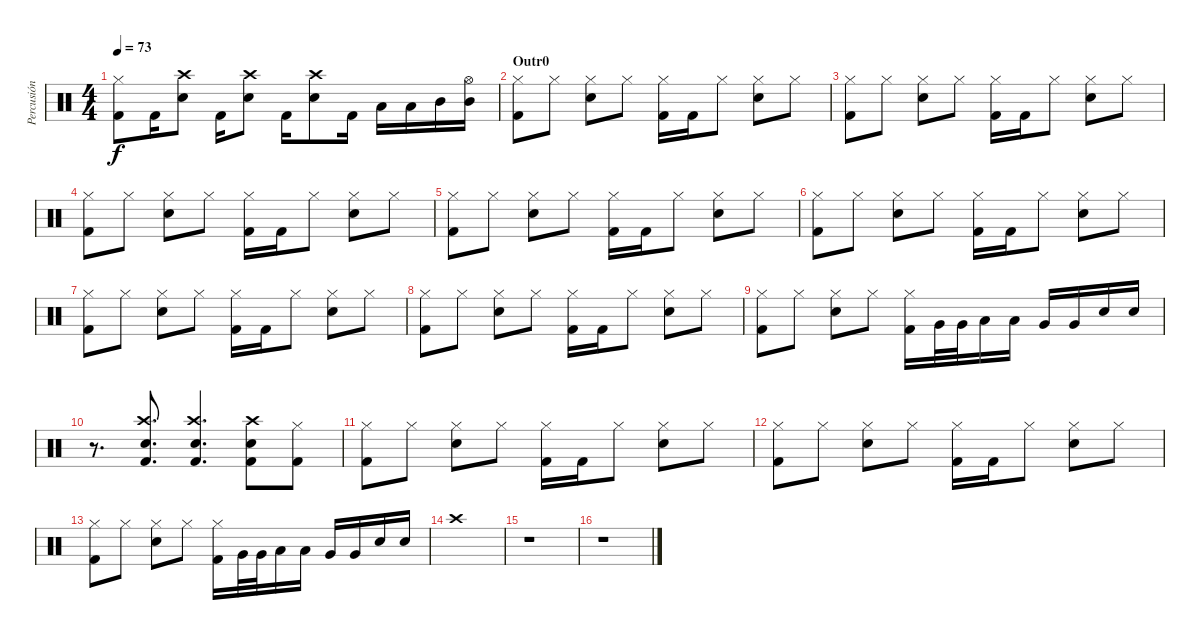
\track ("Percusión" "Percusión") {instrument percussion}
\staff {score}
\articulation defaults
\ts (4 4)
\tempo 73
\clef neutral
\ks c
("Hi-Hat (closed)" "Kick (hit) 2").8{dy f} "Kick (hit) 2".16 ("Crash high (hit)" "Electric Snare (hit)").8 "Kick (hit) 2".16 ("Crash high (hit)" "Electric Snare (hit)").8 "Kick (hit) 2".16 ("Crash high (hit)" "Electric Snare (hit)").8 "Kick (hit) 2".16 "Low Floor Tom (hit)".16 "Low Floor Tom (hit)".16 "Mid Tom (hit)".16 ("Hi-Hat (open)" "Mid Tom (hit)").16 |
\section ("" "Outr0")
("Hi-Hat (closed)" "Kick (hit) 2").8 "Hi-Hat (closed)".8 ("Hi-Hat (closed)" "Electric Snare (hit)").8 "Hi-Hat (closed)".8 ("Hi-Hat (closed)" "Kick (hit) 2").16 "Kick (hit) 2".16 "Hi-Hat (closed)".8 ("Hi-Hat (closed)" "Electric Snare (hit)").8 "Hi-Hat (closed)".8 |
("Hi-Hat (closed)" "Kick (hit) 2").8 "Hi-Hat (closed)".8 ("Hi-Hat (closed)" "Electric Snare (hit)").8 "Hi-Hat (closed)".8 ("Hi-Hat (closed)" "Kick (hit) 2").16 "Kick (hit) 2".16 "Hi-Hat (closed)".8 ("Hi-Hat (closed)" "Electric Snare (hit)").8 "Hi-Hat (closed)".8 |
("Hi-Hat (closed)" "Kick (hit) 2").8 "Hi-Hat (closed)".8 ("Hi-Hat (closed)" "Electric Snare (hit)").8 "Hi-Hat (closed)".8 ("Hi-Hat (closed)" "Kick (hit) 2").16 "Kick (hit) 2".16 "Hi-Hat (closed)".8 ("Hi-Hat (closed)" "Electric Snare (hit)").8 "Hi-Hat (closed)".8 |
("Hi-Hat (closed)" "Kick (hit) 2").8 "Hi-Hat (closed)".8 ("Hi-Hat (closed)" "Electric Snare (hit)").8 "Hi-Hat (closed)".8 ("Hi-Hat (closed)" "Kick (hit) 2").16 "Kick (hit) 2".16 "Hi-Hat (closed)".8 ("Hi-Hat (closed)" "Electric Snare (hit)").8 "Hi-Hat (closed)".8 |
("Hi-Hat (closed)" "Kick (hit) 2").8 "Hi-Hat (closed)".8 ("Hi-Hat (closed)" "Electric Snare (hit)").8 "Hi-Hat (closed)".8 ("Hi-Hat (closed)" "Kick (hit) 2").16 "Kick (hit) 2".16 "Hi-Hat (closed)".8 ("Hi-Hat (closed)" "Electric Snare (hit)").8 "Hi-Hat (closed)".8 |
("Hi-Hat (closed)" "Kick (hit) 2").8 "Hi-Hat (closed)".8 ("Hi-Hat (closed)" "Electric Snare (hit)").8 "Hi-Hat (closed)".8 ("Hi-Hat (closed)" "Kick (hit) 2").16 "Kick (hit) 2".16 "Hi-Hat (closed)".8 ("Hi-Hat (closed)" "Electric Snare (hit)").8 "Hi-Hat (closed)".8 |
("Hi-Hat (closed)" "Kick (hit) 2").8 "Hi-Hat (closed)".8 ("Hi-Hat (closed)" "Electric Snare (hit)").8 "Hi-Hat (closed)".8 ("Hi-Hat (closed)" "Kick (hit) 2").16 "Kick (hit) 2".16 "Hi-Hat (closed)".8 ("Hi-Hat (closed)" "Electric Snare (hit)").8 "Hi-Hat (closed)".8 |
("Hi-Hat (closed)" "Kick (hit) 2").8 "Hi-Hat (closed)".8 ("Hi-Hat (closed)" "Electric Snare (hit)").8 "Hi-Hat (closed)".8 ("Hi-Hat (closed)" "Kick (hit) 2").16 "Very Low Tom (hit)".32 "Very Low Tom (hit)".32 "Low Tom (hit)".16 "Low Tom (hit)".16 "Very Low Tom (hit)".16 "Very Low Tom (hit)".16 "Electric Snare (hit)".16 "Electric Snare (hit)".16 |
r.8{d} ("Crash high (hit)" "Kick (hit) 2" "Electric Snare (hit)").8{d} ("Crash high (hit)" "Electric Snare (hit)" "Kick (hit) 2").4{d} ("Crash high (hit)" "Electric Snare (hit)" "Kick (hit) 2").8 ("Hi-Hat (closed)" "Kick (hit) 2").8 |
("Hi-Hat (closed)" "Kick (hit) 2").8 "Hi-Hat (closed)".8 ("Hi-Hat (closed)" "Electric Snare (hit)").8 "Hi-Hat (closed)".8 ("Hi-Hat (closed)" "Kick (hit) 2").16 "Kick (hit) 2".16 "Hi-Hat (closed)".8 ("Hi-Hat (closed)" "Electric Snare (hit)").8 "Hi-Hat (closed)".8 |
("Hi-Hat (closed)" "Kick (hit) 2").8 "Hi-Hat (closed)".8 ("Hi-Hat (closed)" "Electric Snare (hit)").8 "Hi-Hat (closed)".8 ("Hi-Hat (closed)" "Kick (hit) 2").16 "Kick (hit) 2".16 "Hi-Hat (closed)".8 ("Hi-Hat (closed)" "Electric Snare (hit)").8 "Hi-Hat (closed)".8 |
("Hi-Hat (closed)" "Kick (hit) 2").8 "Hi-Hat (closed)".8 ("Hi-Hat (closed)" "Electric Snare (hit)").8 "Hi-Hat (closed)".8 ("Hi-Hat (closed)" "Kick (hit) 2").16 "Very Low Tom (hit)".32 "Very Low Tom (hit)".32 "Low Tom (hit)".16 "Low Tom (hit)".16 "Very Low Tom (hit)".16 "Very Low Tom (hit)".16 "Electric Snare (hit)".16 "Electric Snare (hit)".16 |
"Crash high (hit)".1 |
r.1 |
r.1
